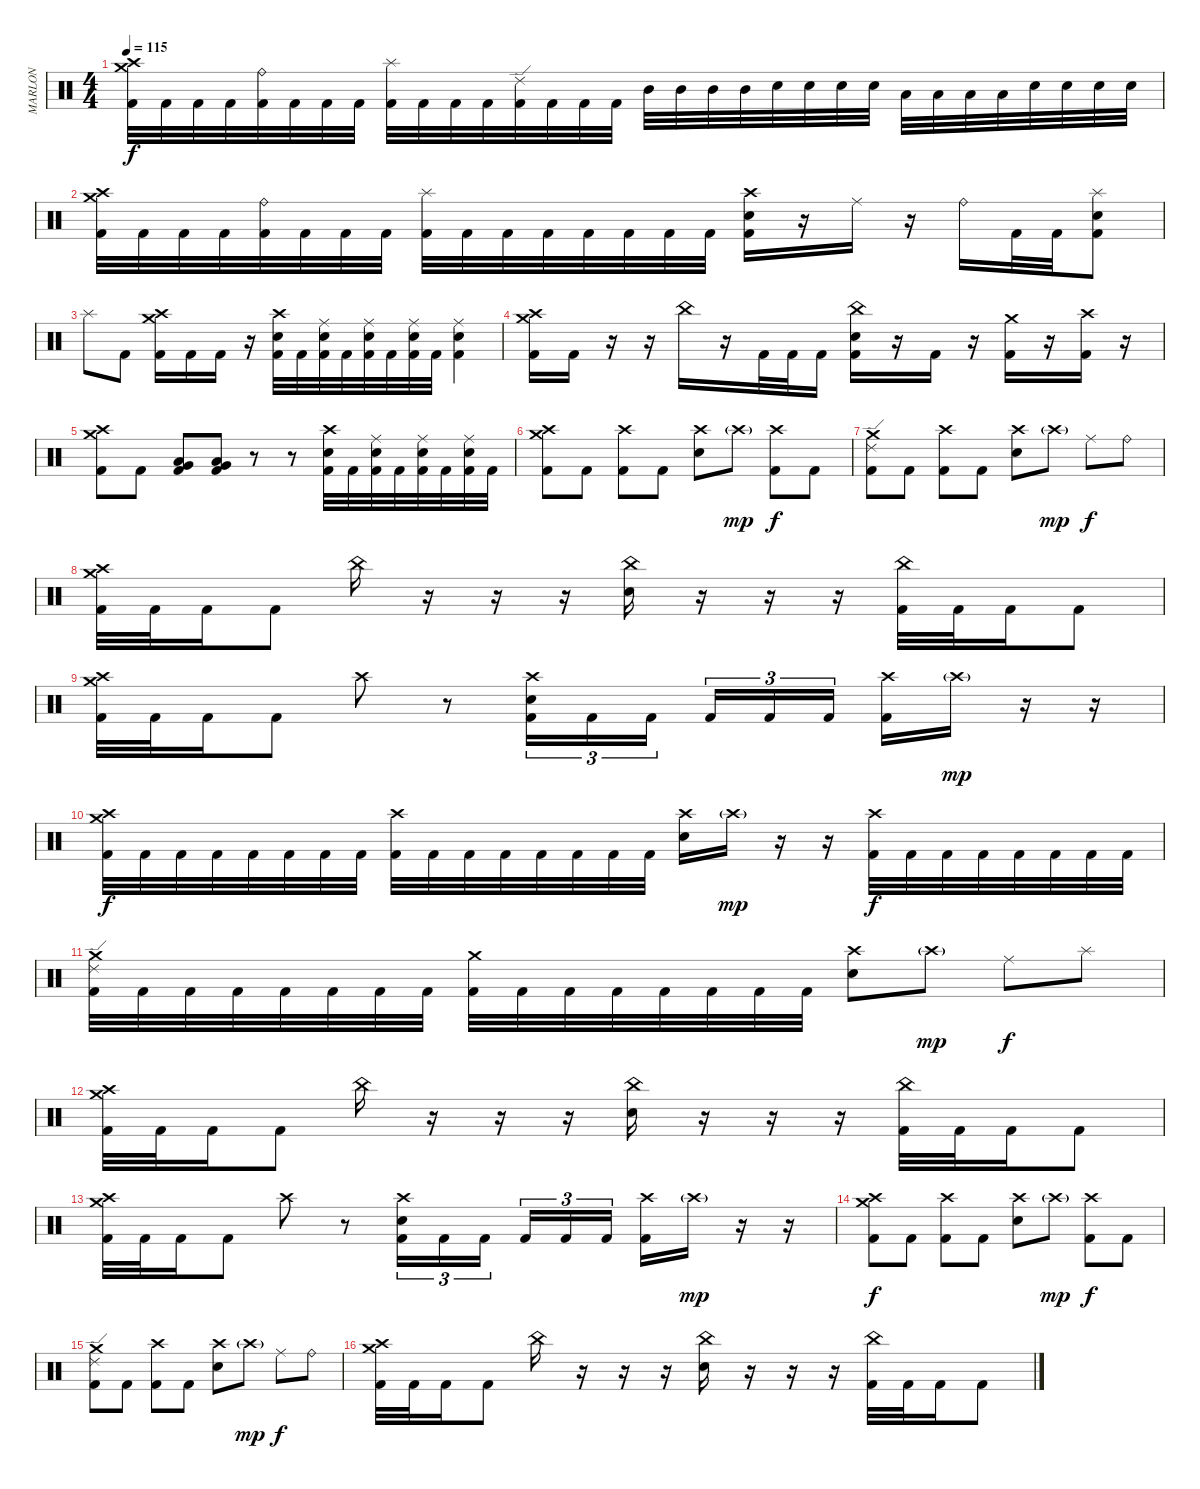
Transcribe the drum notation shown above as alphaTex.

\track ("MARLON" "MARLON") {instrument percussion}
\staff {score}
\articulation defaults
\ts (4 4)
\tempo 115
\clef neutral
\ks c
("Crash high (hit)" "Crash medium (hit)" "Kick (hit) 2").32{dy f} "Kick (hit) 2".32 "Kick (hit) 2".32 "Kick (hit) 2".32 ("Ride (bell)" "Kick (hit) 2").32 "Kick (hit) 2".32 "Kick (hit) 2".32 "Kick (hit) 2".32 ("Splash (hit)" "Kick (hit) 2").32 "Kick (hit) 2".32 "Kick (hit) 2".32 "Kick (hit) 2".32 ("Ride (edge) 2" "Kick (hit) 2").32 "Kick (hit) 2".32 "Kick (hit) 2".32 "Kick (hit) 2".32 "Mid Tom (hit)".32 "Mid Tom (hit)".32 "Mid Tom (hit)".32 "Mid Tom (hit)".32 "Electric Snare (hit)".32 "Electric Snare (hit)".32 "Electric Snare (hit)".32 "Electric Snare (hit)".32 "Low Tom (hit)".32 "Low Tom (hit)".32 "Low Tom (hit)".32 "Low Tom (hit)".32 "Electric Snare (hit)".32 "Electric Snare (hit)".32 "Electric Snare (hit)".32 "Electric Snare (hit)".32 |
("Crash high (hit)" "Crash medium (hit)" "Kick (hit) 2").32 "Kick (hit) 2".32 "Kick (hit) 2".32 "Kick (hit) 2".32 ("Ride (bell)" "Kick (hit) 2").32 "Kick (hit) 2".32 "Kick (hit) 2".32 "Kick (hit) 2".32 ("Splash (hit)" "Kick (hit) 2").32 "Kick (hit) 2".32 "Kick (hit) 2".32 "Kick (hit) 2".32 "Kick (hit) 2".32 "Kick (hit) 2".32 "Kick (hit) 2".32 "Kick (hit) 2".32 ("Crash high (hit)" "Electric Snare (hit)" "Kick (hit) 2").16 r.16 "Ride (middle)".16 r.16 "Ride (bell)".16 "Kick (hit) 2".32 "Kick (hit) 2".32 ("Splash (hit)" "Electric Snare (hit)" "Kick (hit) 2").8 |
"Splash (hit)".8 "Kick (hit) 2".8 ("Crash medium (hit)" "Crash high (hit)" "Kick (hit) 2").16 "Kick (hit) 2".16 "Kick (hit) 2".16 r.16 ("Crash high (hit)" "Electric Snare (hit)" "Kick (hit) 2").32 "Kick (hit) 2".32 ("Ride (middle)" "Electric Snare (hit)" "Kick (hit) 2").32 "Kick (hit) 2".32 ("Ride (middle)" "Electric Snare (hit)" "Kick (hit) 2").32 "Kick (hit) 2".32 ("Ride (middle)" "Electric Snare (hit)" "Kick (hit) 2").32 "Kick (hit) 2".32 ("Ride (middle)" "Electric Snare (hit)" "Kick (hit) 2").4 |
("Crash medium (hit)" "Crash high (hit)" "Kick (hit) 2").16 "Kick (hit) 2".16 r.16 r.16 "China (hit)".16 r.16 "Kick (hit) 2".32 "Kick (hit) 2".32 "Kick (hit) 2".16 ("China (hit)" "Electric Snare (hit)" "Kick (hit) 2").16 r.16 "Kick (hit) 2".16 r.16 ("Crash medium (hit)" "Kick (hit) 2").16 r.16 ("Crash high (hit)" "Kick (hit) 2").16 r.16 |
("Crash high (hit)" "Crash medium (hit)" "Kick (hit) 2").8 "Kick (hit) 2".8 ("Low Tom (hit)" "Very Low Tom (hit)" "Kick (hit) 2").8 ("Low Tom (hit)" "Very Low Tom (hit)" "Kick (hit) 2").8 r.8 r.8 ("Crash high (hit)" "Electric Snare (hit)" "Kick (hit) 2").32 "Kick (hit) 2".32 ("Ride (middle)" "Electric Snare (hit)" "Kick (hit) 2").32 "Kick (hit) 2".32 ("Ride (middle)" "Electric Snare (hit)" "Kick (hit) 2").32 "Kick (hit) 2".32 ("Ride (middle)" "Electric Snare (hit)" "Kick (hit) 2").32 "Kick (hit) 2".32 |
("Crash medium (hit)" "Crash high (hit)" "Kick (hit) 2").8 "Kick (hit) 2".8 ("Crash high (hit)" "Kick (hit) 2").8 "Kick (hit) 2".8 ("Crash high (hit)" "Electric Snare (hit)").8 "Crash high (hit)"{g}.8{dy mp} ("Crash high (hit)" "Kick (hit) 2").8{dy f} "Kick (hit) 2".8 |
("Crash medium (hit)" "Ride (edge) 2" "Kick (hit) 2").8 "Kick (hit) 2".8 ("Crash high (hit)" "Kick (hit) 2").8 "Kick (hit) 2".8 ("Crash high (hit)" "Electric Snare (hit)").8 "Crash high (hit)"{g}.8{dy mp} "Ride (middle)".8{dy f} "Ride (bell)".8 |
("Crash medium (hit)" "Crash high (hit)" "Kick (hit) 2").32 "Kick (hit) 2".32 "Kick (hit) 2".16 "Kick (hit) 2".8 "China (hit)".16 r.16 r.16 r.16 ("China (hit)" "Electric Snare (hit)").16 r.16 r.16 r.16 ("China (hit)" "Kick (hit) 2").32 "Kick (hit) 2".32 "Kick (hit) 2".16 "Kick (hit) 2".8 |
("Crash medium (hit)" "Crash high (hit)" "Kick (hit) 2").32 "Kick (hit) 2".32 "Kick (hit) 2".16 "Kick (hit) 2".8 "Crash high (hit)".8 r.8 ("Crash high (hit)" "Electric Snare (hit)" "Kick (hit) 2").16{tu (3 2)} "Kick (hit) 2".16{tu (3 2)} "Kick (hit) 2".16{tu (3 2) beam splitsecondary} "Kick (hit) 2".16{tu (3 2)} "Kick (hit) 2".16{tu (3 2)} "Kick (hit) 2".16{tu (3 2)} ("Crash high (hit)" "Kick (hit) 2").16 "Crash high (hit)"{g}.16{dy mp} r.16 r.16 |
("Crash medium (hit)" "Crash high (hit)" "Kick (hit) 2").32{dy f} "Kick (hit) 2".32 "Kick (hit) 2".32 "Kick (hit) 2".32 "Kick (hit) 2".32 "Kick (hit) 2".32 "Kick (hit) 2".32 "Kick (hit) 2".32 ("Crash high (hit)" "Kick (hit) 2").32 "Kick (hit) 2".32 "Kick (hit) 2".32 "Kick (hit) 2".32 "Kick (hit) 2".32 "Kick (hit) 2".32 "Kick (hit) 2".32 "Kick (hit) 2".32 ("Crash high (hit)" "Electric Snare (hit)").16 "Crash high (hit)"{g}.16{dy mp} r.16 r.16 ("Crash high (hit)" "Kick (hit) 2").32{dy f} "Kick (hit) 2".32 "Kick (hit) 2".32 "Kick (hit) 2".32 "Kick (hit) 2".32 "Kick (hit) 2".32 "Kick (hit) 2".32 "Kick (hit) 2".32 |
("Crash medium (hit)" "Ride (edge) 2" "Kick (hit) 2").32 "Kick (hit) 2".32 "Kick (hit) 2".32 "Kick (hit) 2".32 "Kick (hit) 2".32 "Kick (hit) 2".32 "Kick (hit) 2".32 "Kick (hit) 2".32 ("Crash medium (hit)" "Kick (hit) 2").32 "Kick (hit) 2".32 "Kick (hit) 2".32 "Kick (hit) 2".32 "Kick (hit) 2".32 "Kick (hit) 2".32 "Kick (hit) 2".32 "Kick (hit) 2".32 ("Crash high (hit)" "Electric Snare (hit)").8 "Crash high (hit)"{g}.8{dy mp} "Ride (middle)".8{dy f} "Splash (hit)".8 |
("Crash medium (hit)" "Crash high (hit)" "Kick (hit) 2").32 "Kick (hit) 2".32 "Kick (hit) 2".16 "Kick (hit) 2".8 "China (hit)".16 r.16 r.16 r.16 ("China (hit)" "Electric Snare (hit)").16 r.16 r.16 r.16 ("China (hit)" "Kick (hit) 2").32 "Kick (hit) 2".32 "Kick (hit) 2".16 "Kick (hit) 2".8 |
("Crash medium (hit)" "Crash high (hit)" "Kick (hit) 2").32 "Kick (hit) 2".32 "Kick (hit) 2".16 "Kick (hit) 2".8 "Crash high (hit)".8 r.8 ("Crash high (hit)" "Electric Snare (hit)" "Kick (hit) 2").16{tu (3 2)} "Kick (hit) 2".16{tu (3 2)} "Kick (hit) 2".16{tu (3 2) beam splitsecondary} "Kick (hit) 2".16{tu (3 2)} "Kick (hit) 2".16{tu (3 2)} "Kick (hit) 2".16{tu (3 2)} ("Crash high (hit)" "Kick (hit) 2").16 "Crash high (hit)"{g}.16{dy mp} r.16 r.16 |
("Crash medium (hit)" "Crash high (hit)" "Kick (hit) 2").8{dy f} "Kick (hit) 2".8 ("Crash high (hit)" "Kick (hit) 2").8 "Kick (hit) 2".8 ("Crash high (hit)" "Electric Snare (hit)").8 "Crash high (hit)"{g}.8{dy mp} ("Crash high (hit)" "Kick (hit) 2").8{dy f} "Kick (hit) 2".8 |
("Crash medium (hit)" "Ride (edge) 2" "Kick (hit) 2").8 "Kick (hit) 2".8 ("Crash high (hit)" "Kick (hit) 2").8 "Kick (hit) 2".8 ("Crash high (hit)" "Electric Snare (hit)").8 "Crash high (hit)"{g}.8{dy mp} "Ride (middle)".8{dy f} "Ride (bell)".8 |
("Crash medium (hit)" "Crash high (hit)" "Kick (hit) 2").32 "Kick (hit) 2".32 "Kick (hit) 2".16 "Kick (hit) 2".8 "China (hit)".16 r.16 r.16 r.16 ("China (hit)" "Electric Snare (hit)").16 r.16 r.16 r.16 ("China (hit)" "Kick (hit) 2").32 "Kick (hit) 2".32 "Kick (hit) 2".16 "Kick (hit) 2".8
